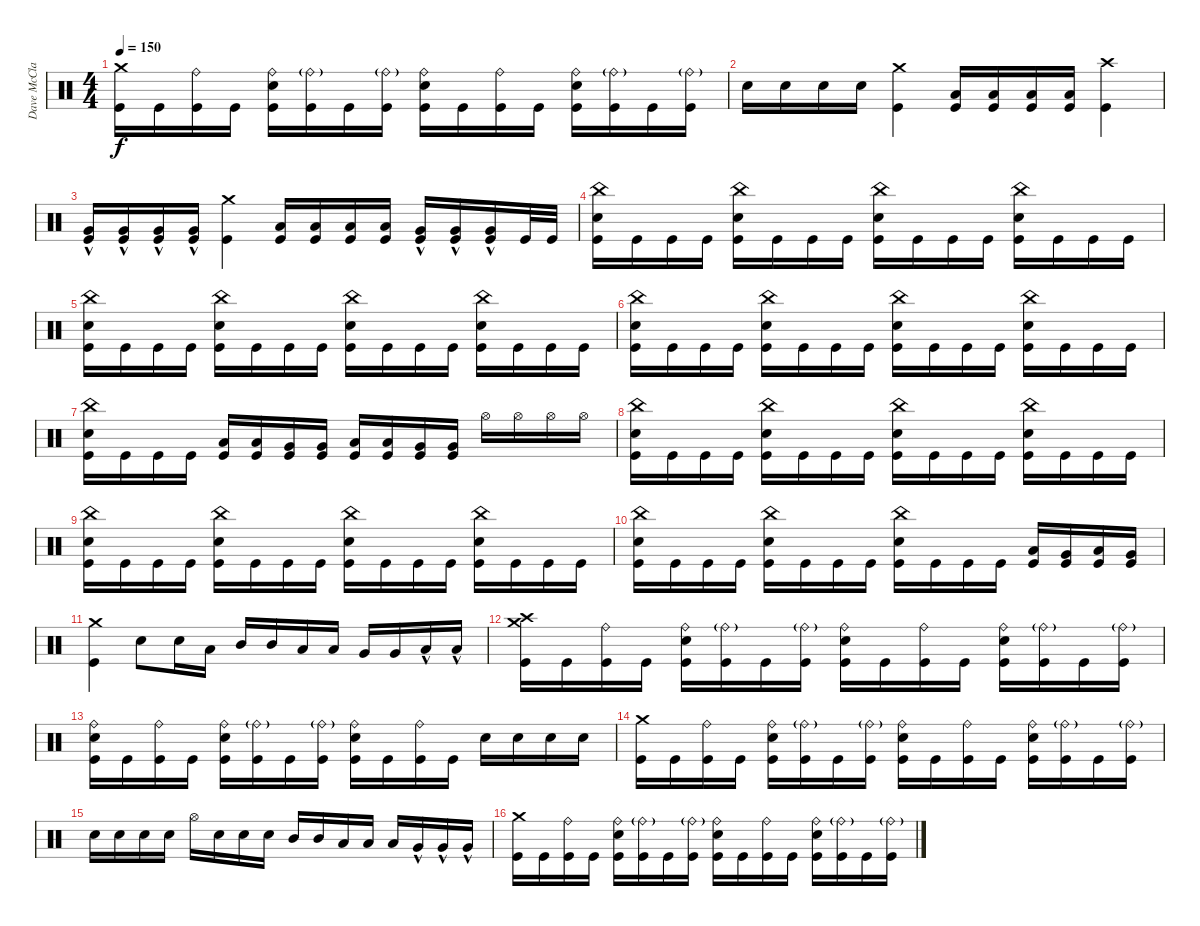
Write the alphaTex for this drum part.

\track ("Dave McClaine" "Dave McCla") {instrument percussion}
\staff {score}
\articulation defaults
\ts (4 4)
\tempo 150
\clef neutral
\ks c
("Kick (hit)" "Crash medium (hit)").16{dy f} "Kick (hit)".16 ("Kick (hit)" "Ride (bell)").16 "Kick (hit)".16 ("Kick (hit)" "Snare (hit) 2" "Ride (bell)").16 ("Kick (hit)" "Ride (bell)"{g}).16 "Kick (hit)".16 ("Kick (hit)" "Ride (bell)"{g}).16 ("Kick (hit)" "Snare (hit) 2" "Ride (bell)").16 "Kick (hit)".16 ("Kick (hit)" "Ride (bell)").16 "Kick (hit)".16 ("Kick (hit)" "Snare (hit) 2" "Ride (bell)").16 ("Kick (hit)" "Ride (bell)"{g}).16 "Kick (hit)".16 ("Kick (hit)" "Ride (bell)"{g}).16 |
"Snare (hit) 2".16 "Snare (hit) 2".16 "Snare (hit) 2".16 "Snare (hit) 2".16 ("Crash medium (hit)" "Kick (hit)").4 ("Low Tom (hit)" "Kick (hit)").16 ("Low Tom (hit)" "Kick (hit)").16 ("Low Tom (hit)" "Kick (hit)").16 ("Low Tom (hit)" "Kick (hit)").16 ("Crash high (hit)" "Kick (hit)").4 |
("Very Low Tom (hit)"{hac} "Kick (hit)").16 ("Very Low Tom (hit)"{hac} "Kick (hit)").16 ("Very Low Tom (hit)"{hac} "Kick (hit)").16 ("Very Low Tom (hit)"{hac} "Kick (hit)").16 ("Crash medium (hit)" "Kick (hit)").4 ("Low Tom (hit)" "Kick (hit)").16 ("Low Tom (hit)" "Kick (hit)").16 ("Low Tom (hit)" "Kick (hit)").16 ("Low Tom (hit)" "Kick (hit)").16 ("Very Low Tom (hit)"{hac} "Kick (hit)").16 ("Very Low Tom (hit)"{hac} "Kick (hit)").16 ("Very Low Tom (hit)"{hac} "Kick (hit)").16 "Kick (hit)".32 "Kick (hit)".32 |
("Kick (hit)" "Snare (hit) 2" "China (hit)").16 "Kick (hit)".16 "Kick (hit)".16 "Kick (hit)".16 ("Kick (hit)" "Snare (hit) 2" "China (hit)").16 "Kick (hit)".16 "Kick (hit)".16 "Kick (hit)".16 ("Kick (hit)" "Snare (hit) 2" "China (hit)").16 "Kick (hit)".16 "Kick (hit)".16 "Kick (hit)".16 ("Kick (hit)" "Snare (hit) 2" "China (hit)").16 "Kick (hit)".16 "Kick (hit)".16 "Kick (hit)".16 |
("Kick (hit)" "Snare (hit) 2" "China (hit)").16 "Kick (hit)".16 "Kick (hit)".16 "Kick (hit)".16 ("Kick (hit)" "Snare (hit) 2" "China (hit)").16 "Kick (hit)".16 "Kick (hit)".16 "Kick (hit)".16 ("Kick (hit)" "Snare (hit) 2" "China (hit)").16 "Kick (hit)".16 "Kick (hit)".16 "Kick (hit)".16 ("Kick (hit)" "Snare (hit) 2" "China (hit)").16 "Kick (hit)".16 "Kick (hit)".16 "Kick (hit)".16 |
("Kick (hit)" "Snare (hit) 2" "China (hit)").16 "Kick (hit)".16 "Kick (hit)".16 "Kick (hit)".16 ("Kick (hit)" "Snare (hit) 2" "China (hit)").16 "Kick (hit)".16 "Kick (hit)".16 "Kick (hit)".16 ("Kick (hit)" "Snare (hit) 2" "China (hit)").16 "Kick (hit)".16 "Kick (hit)".16 "Kick (hit)".16 ("Kick (hit)" "Snare (hit) 2" "China (hit)").16 "Kick (hit)".16 "Kick (hit)".16 "Kick (hit)".16 |
("Kick (hit)" "Snare (hit) 2" "China (hit)").16 "Kick (hit)".16 "Kick (hit)".16 "Kick (hit)".16 ("Kick (hit)" "Low Tom (hit)").16 ("Kick (hit)" "Low Tom (hit)").16 ("Kick (hit)" "Very Low Tom (hit)").16 ("Kick (hit)" "Very Low Tom (hit)").16 ("Kick (hit)" "Low Tom (hit)").16 ("Kick (hit)" "Low Tom (hit)").16 ("Kick (hit)" "Very Low Tom (hit)").16 ("Kick (hit)" "Very Low Tom (hit)").16 "Hi-Hat (open)".16 "Hi-Hat (open)".16 "Hi-Hat (open)".16 "Hi-Hat (open)".16 |
("Kick (hit)" "Snare (hit) 2" "China (hit)").16 "Kick (hit)".16 "Kick (hit)".16 "Kick (hit)".16 ("Kick (hit)" "Snare (hit) 2" "China (hit)").16 "Kick (hit)".16 "Kick (hit)".16 "Kick (hit)".16 ("Kick (hit)" "Snare (hit) 2" "China (hit)").16 "Kick (hit)".16 "Kick (hit)".16 "Kick (hit)".16 ("Kick (hit)" "Snare (hit) 2" "China (hit)").16 "Kick (hit)".16 "Kick (hit)".16 "Kick (hit)".16 |
("Kick (hit)" "Snare (hit) 2" "China (hit)").16 "Kick (hit)".16 "Kick (hit)".16 "Kick (hit)".16 ("Kick (hit)" "Snare (hit) 2" "China (hit)").16 "Kick (hit)".16 "Kick (hit)".16 "Kick (hit)".16 ("Kick (hit)" "Snare (hit) 2" "China (hit)").16 "Kick (hit)".16 "Kick (hit)".16 "Kick (hit)".16 ("Kick (hit)" "Snare (hit) 2" "China (hit)").16 "Kick (hit)".16 "Kick (hit)".16 "Kick (hit)".16 |
("Kick (hit)" "Snare (hit) 2" "China (hit)").16 "Kick (hit)".16 "Kick (hit)".16 "Kick (hit)".16 ("Kick (hit)" "Snare (hit) 2" "China (hit)").16 "Kick (hit)".16 "Kick (hit)".16 "Kick (hit)".16 ("Kick (hit)" "Snare (hit) 2" "China (hit)").16 "Kick (hit)".16 "Kick (hit)".16 "Kick (hit)".16 ("Kick (hit)" "Low Tom (hit)").16 ("Kick (hit)" "Very Low Tom (hit)").16 ("Kick (hit)" "Low Tom (hit)").16 ("Kick (hit)" "Very Low Tom (hit)").16 |
("Kick (hit)" "Crash medium (hit)").4 "Snare (hit) 2".8 "Snare (hit) 2".16 "Low Tom (hit)".16 "Mid Tom (hit)".16 "Mid Tom (hit)".16 "Low Tom (hit)".16 "Low Tom (hit)".16 "Very Low Tom (hit)".16 "Very Low Tom (hit)".16 "Low Floor Tom (hit)"{hac}.16 "Low Floor Tom (hit)"{hac}.16 |
("Kick (hit)" "Crash high (hit)" "Crash medium (hit)").16 "Kick (hit)".16 ("Kick (hit)" "Ride (bell)").16 "Kick (hit)".16 ("Kick (hit)" "Snare (hit) 2" "Ride (bell)").16 ("Kick (hit)" "Ride (bell)"{g}).16 "Kick (hit)".16 ("Kick (hit)" "Ride (bell)"{g}).16 ("Kick (hit)" "Snare (hit) 2" "Ride (bell)").16 "Kick (hit)".16 ("Kick (hit)" "Ride (bell)").16 "Kick (hit)".16 ("Kick (hit)" "Snare (hit) 2" "Ride (bell)").16 ("Kick (hit)" "Ride (bell)"{g}).16 "Kick (hit)".16 ("Kick (hit)" "Ride (bell)"{g}).16 |
("Kick (hit)" "Ride (bell)" "Snare (hit) 2").16 "Kick (hit)".16 ("Kick (hit)" "Ride (bell)").16 "Kick (hit)".16 ("Kick (hit)" "Snare (hit) 2" "Ride (bell)").16 ("Kick (hit)" "Ride (bell)"{g}).16 "Kick (hit)".16 ("Kick (hit)" "Ride (bell)"{g}).16 ("Kick (hit)" "Snare (hit) 2" "Ride (bell)").16 "Kick (hit)".16 ("Kick (hit)" "Ride (bell)").16 "Kick (hit)".16 "Snare (hit) 2".16 "Snare (hit) 2".16 "Snare (hit) 2".16 "Snare (hit) 2".16 |
("Kick (hit)" "Crash medium (hit)").16 "Kick (hit)".16 ("Kick (hit)" "Ride (bell)").16 "Kick (hit)".16 ("Kick (hit)" "Snare (hit) 2" "Ride (bell)").16 ("Kick (hit)" "Ride (bell)"{g}).16 "Kick (hit)".16 ("Kick (hit)" "Ride (bell)"{g}).16 ("Kick (hit)" "Snare (hit) 2" "Ride (bell)").16 "Kick (hit)".16 ("Kick (hit)" "Ride (bell)").16 "Kick (hit)".16 ("Kick (hit)" "Snare (hit) 2" "Ride (bell)").16 ("Kick (hit)" "Ride (bell)"{g}).16 "Kick (hit)".16 ("Kick (hit)" "Ride (bell)"{g}).16 |
"Snare (hit) 2".16 "Snare (hit) 2".16 "Snare (hit) 2".16 "Snare (hit) 2".16 "Hi-Hat (open)".16 "Snare (hit) 2".16 "Snare (hit) 2".16 "Snare (hit) 2".16 "Mid Tom (hit)".16 "Mid Tom (hit)".16 "Low Tom (hit)".16 "Low Tom (hit)".16 "Low Tom (hit)".16 "Very Low Tom (hit)"{hac}.16 "Very Low Tom (hit)"{hac}.16 "Very Low Tom (hit)"{hac}.16 |
("Kick (hit)" "Crash medium (hit)").16 "Kick (hit)".16 ("Kick (hit)" "Ride (bell)").16 "Kick (hit)".16 ("Kick (hit)" "Snare (hit) 2" "Ride (bell)").16 ("Kick (hit)" "Ride (bell)"{g}).16 "Kick (hit)".16 ("Kick (hit)" "Ride (bell)"{g}).16 ("Kick (hit)" "Snare (hit) 2" "Ride (bell)").16 "Kick (hit)".16 ("Kick (hit)" "Ride (bell)").16 "Kick (hit)".16 ("Kick (hit)" "Snare (hit) 2" "Ride (bell)").16 ("Kick (hit)" "Ride (bell)"{g}).16 "Kick (hit)".16 ("Kick (hit)" "Ride (bell)"{g}).16
